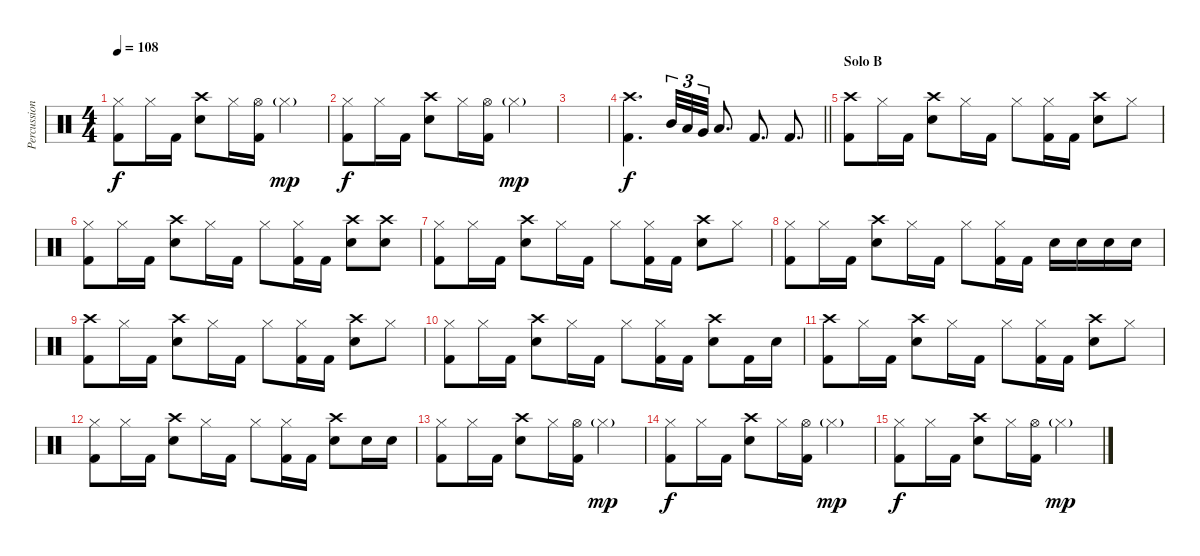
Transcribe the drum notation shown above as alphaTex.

\track ("Percussion" "Percussion") {instrument percussion}
\staff {score}
\articulation defaults
\ts (4 4)
\tempo 108
\clef neutral
\ks c
("Hi-Hat (closed)" "Kick (hit) 2").8{dy f} "Hi-Hat (closed)".16 "Kick (hit) 2".16 ("Crash high (hit)" "Snare (hit) 2").8 "Hi-Hat (closed)".16 ("Hi-Hat (open)" "Kick (hit) 2").16 "Hi-Hat (closed)"{g}.2{dy mp} |
("Hi-Hat (closed)" "Kick (hit) 2").8{dy f} "Hi-Hat (closed)".16 "Kick (hit) 2".16 ("Crash high (hit)" "Snare (hit) 2").8 "Hi-Hat (closed)".16 ("Hi-Hat (open)" "Kick (hit) 2").16 "Hi-Hat (closed)"{g}.2{dy mp} |
|
\barLineRight lightlight
("Crash high (hit)" "Kick (hit) 2").4{d dy f} "Mid Tom (hit)".32{tu (3 2)} "Low Tom (hit)".32{tu (3 2)} "Very Low Tom (hit)".32{tu (3 2)} "Low Floor Tom (hit)".8{d} "Kick (hit) 2".8{d} "Kick (hit) 2".8{d} |
\section ("" "Solo B")
("Crash high (hit)" "Kick (hit) 2").8 "Hi-Hat (closed)".16 "Kick (hit) 2".16 ("Crash high (hit)" "Snare (hit) 2").8 "Hi-Hat (closed)".16 "Kick (hit) 2".16 "Hi-Hat (closed)".8 ("Hi-Hat (closed)" "Kick (hit) 2").16 "Kick (hit) 2".16 ("Crash high (hit)" "Snare (hit) 2").8 "Hi-Hat (closed)".8 |
("Hi-Hat (closed)" "Kick (hit) 2").8 "Hi-Hat (closed)".16 "Kick (hit) 2".16 ("Crash high (hit)" "Snare (hit) 2").8 "Hi-Hat (closed)".16 "Kick (hit) 2".16 "Hi-Hat (closed)".8 ("Hi-Hat (closed)" "Kick (hit) 2").16 "Kick (hit) 2".16 ("Crash high (hit)" "Snare (hit) 2").8 ("Crash high (hit)" "Snare (hit) 2").8 |
("Hi-Hat (closed)" "Kick (hit) 2").8 "Hi-Hat (closed)".16 "Kick (hit) 2".16 ("Crash high (hit)" "Snare (hit) 2").8 "Hi-Hat (closed)".16 "Kick (hit) 2".16 "Hi-Hat (closed)".8 ("Hi-Hat (closed)" "Kick (hit) 2").16 "Kick (hit) 2".16 ("Crash high (hit)" "Snare (hit) 2").8 "Hi-Hat (closed)".8 |
("Hi-Hat (closed)" "Kick (hit) 2").8 "Hi-Hat (closed)".16 "Kick (hit) 2".16 ("Crash high (hit)" "Snare (hit) 2").8 "Hi-Hat (closed)".16 "Kick (hit) 2".16 "Hi-Hat (closed)".8 ("Hi-Hat (closed)" "Kick (hit) 2").16 "Kick (hit) 2".16 "Snare (hit) 2".16 "Snare (hit) 2".16 "Snare (hit) 2".16 "Snare (hit) 2".16 |
("Crash high (hit)" "Kick (hit) 2").8 "Hi-Hat (closed)".16 "Kick (hit) 2".16 ("Crash high (hit)" "Snare (hit) 2").8 "Hi-Hat (closed)".16 "Kick (hit) 2".16 "Hi-Hat (closed)".8 ("Hi-Hat (closed)" "Kick (hit) 2").16 "Kick (hit) 2".16 ("Crash high (hit)" "Snare (hit) 2").8 "Hi-Hat (closed)".8 |
("Hi-Hat (closed)" "Kick (hit) 2").8 "Hi-Hat (closed)".16 "Kick (hit) 2".16 ("Crash high (hit)" "Snare (hit) 2").8 "Hi-Hat (closed)".16 "Kick (hit) 2".16 "Hi-Hat (closed)".8 ("Hi-Hat (closed)" "Kick (hit) 2").16 "Kick (hit) 2".16 ("Crash high (hit)" "Snare (hit) 2").8 "Kick (hit) 2".16 "Snare (hit) 2".16 |
("Crash high (hit)" "Kick (hit) 2").8 "Hi-Hat (closed)".16 "Kick (hit) 2".16 ("Crash high (hit)" "Snare (hit) 2").8 "Hi-Hat (closed)".16 "Kick (hit) 2".16 "Hi-Hat (closed)".8 ("Hi-Hat (closed)" "Kick (hit) 2").16 "Kick (hit) 2".16 ("Crash high (hit)" "Snare (hit) 2").8 "Hi-Hat (closed)".8 |
("Hi-Hat (closed)" "Kick (hit) 2").8 "Hi-Hat (closed)".16 "Kick (hit) 2".16 ("Crash high (hit)" "Snare (hit) 2").8 "Hi-Hat (closed)".16 "Kick (hit) 2".16 "Hi-Hat (closed)".8 ("Hi-Hat (closed)" "Kick (hit) 2").16 "Kick (hit) 2".16 ("Crash high (hit)" "Snare (hit) 2").8 "Snare (hit) 2".16 "Snare (hit) 2".16 |
("Hi-Hat (closed)" "Kick (hit) 2").8 "Hi-Hat (closed)".16 "Kick (hit) 2".16 ("Crash high (hit)" "Snare (hit) 2").8 "Hi-Hat (closed)".16 ("Hi-Hat (open)" "Kick (hit) 2").16 "Hi-Hat (closed)"{g}.2{dy mp} |
("Hi-Hat (closed)" "Kick (hit) 2").8{dy f} "Hi-Hat (closed)".16 "Kick (hit) 2".16 ("Crash high (hit)" "Snare (hit) 2").8 "Hi-Hat (closed)".16 ("Hi-Hat (open)" "Kick (hit) 2").16 "Hi-Hat (closed)"{g}.2{dy mp} |
("Hi-Hat (closed)" "Kick (hit) 2").8{dy f} "Hi-Hat (closed)".16 "Kick (hit) 2".16 ("Crash high (hit)" "Snare (hit) 2").8 "Hi-Hat (closed)".16 ("Hi-Hat (open)" "Kick (hit) 2").16 "Hi-Hat (closed)"{g}.2{dy mp}
